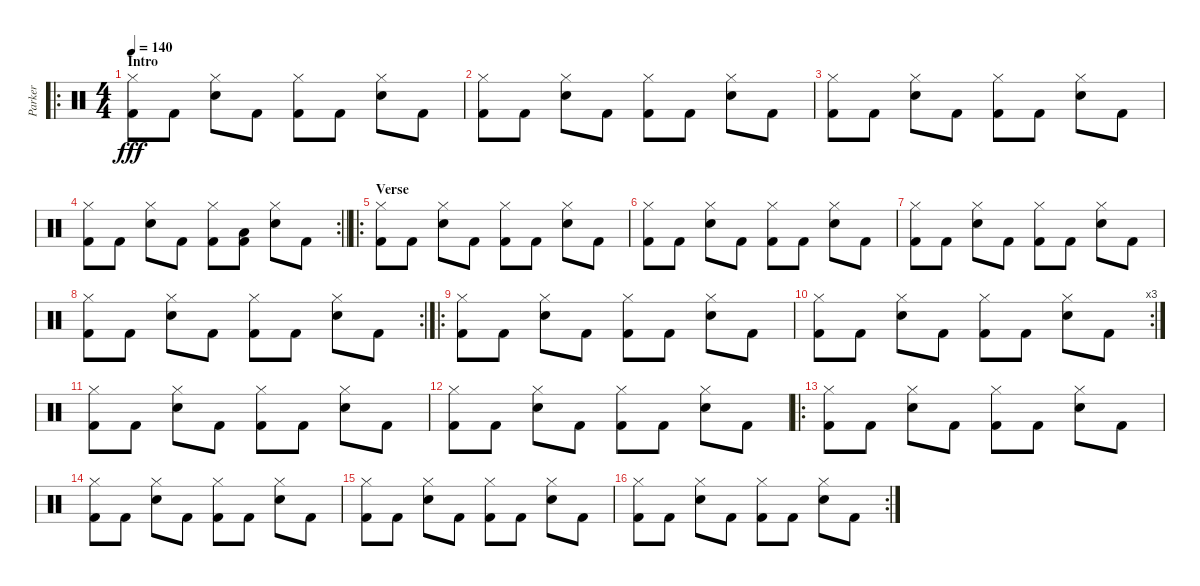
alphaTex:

\track ("Parker" "Parker") {instrument percussion}
\staff {score}
\articulation defaults
\ro
\ts (4 4)
\section ("" "Intro")
\tempo 140
\clef neutral
\ks c
("Kick (hit) 2" "Hi-Hat (closed)").8{dy fff} "Kick (hit) 2".8 ("Hi-Hat (closed)" "Snare (hit) 2").8 "Kick (hit) 2".8 ("Kick (hit) 2" "Hi-Hat (closed)").8 "Kick (hit) 2".8 ("Hi-Hat (closed)" "Snare (hit) 2").8 "Kick (hit) 2".8 |
("Kick (hit) 2" "Hi-Hat (closed)").8 "Kick (hit) 2".8 ("Hi-Hat (closed)" "Snare (hit) 2").8 "Kick (hit) 2".8 ("Kick (hit) 2" "Hi-Hat (closed)").8 "Kick (hit) 2".8 ("Hi-Hat (closed)" "Snare (hit) 2").8 "Kick (hit) 2".8 |
("Kick (hit) 2" "Hi-Hat (closed)").8 "Kick (hit) 2".8 ("Hi-Hat (closed)" "Snare (hit) 2").8 "Kick (hit) 2".8 ("Kick (hit) 2" "Hi-Hat (closed)").8 "Kick (hit) 2".8 ("Hi-Hat (closed)" "Snare (hit) 2").8 "Kick (hit) 2".8 |
\rc 2
\barLineRight lightlight
("Kick (hit) 2" "Hi-Hat (closed)").8 "Kick (hit) 2".8 ("Hi-Hat (closed)" "Snare (hit) 2").8 "Kick (hit) 2".8 ("Kick (hit) 2" "Hi-Hat (closed)").8 ("Kick (hit) 2" "Low Floor Tom (hit)").8 ("Hi-Hat (closed)" "Snare (hit) 2").8 "Kick (hit) 2".8 |
\ro
\section ("" "Verse")
("Kick (hit) 2" "Hi-Hat (closed)").8 "Kick (hit) 2".8 ("Hi-Hat (closed)" "Snare (hit) 2").8 "Kick (hit) 2".8 ("Kick (hit) 2" "Hi-Hat (closed)").8 "Kick (hit) 2".8 ("Hi-Hat (closed)" "Snare (hit) 2").8 "Kick (hit) 2".8 |
("Kick (hit) 2" "Hi-Hat (closed)").8 "Kick (hit) 2".8 ("Hi-Hat (closed)" "Snare (hit) 2").8 "Kick (hit) 2".8 ("Kick (hit) 2" "Hi-Hat (closed)").8 "Kick (hit) 2".8 ("Hi-Hat (closed)" "Snare (hit) 2").8 "Kick (hit) 2".8 |
("Kick (hit) 2" "Hi-Hat (closed)").8 "Kick (hit) 2".8 ("Hi-Hat (closed)" "Snare (hit) 2").8 "Kick (hit) 2".8 ("Kick (hit) 2" "Hi-Hat (closed)").8 "Kick (hit) 2".8 ("Hi-Hat (closed)" "Snare (hit) 2").8 "Kick (hit) 2".8 |
\rc 2
("Kick (hit) 2" "Hi-Hat (closed)").8 "Kick (hit) 2".8 ("Hi-Hat (closed)" "Snare (hit) 2").8 "Kick (hit) 2".8 ("Kick (hit) 2" "Hi-Hat (closed)").8 "Kick (hit) 2".8 ("Hi-Hat (closed)" "Snare (hit) 2").8 "Kick (hit) 2".8 |
\ro
("Kick (hit) 2" "Hi-Hat (closed)").8 "Kick (hit) 2".8 ("Hi-Hat (closed)" "Snare (hit) 2").8 "Kick (hit) 2".8 ("Kick (hit) 2" "Hi-Hat (closed)").8 "Kick (hit) 2".8 ("Hi-Hat (closed)" "Snare (hit) 2").8 "Kick (hit) 2".8 |
\rc 3
("Kick (hit) 2" "Hi-Hat (closed)").8 "Kick (hit) 2".8 ("Hi-Hat (closed)" "Snare (hit) 2").8 "Kick (hit) 2".8 ("Kick (hit) 2" "Hi-Hat (closed)").8 "Kick (hit) 2".8 ("Hi-Hat (closed)" "Snare (hit) 2").8 "Kick (hit) 2".8 |
("Kick (hit) 2" "Hi-Hat (closed)").8 "Kick (hit) 2".8 ("Hi-Hat (closed)" "Snare (hit) 2").8 "Kick (hit) 2".8 ("Kick (hit) 2" "Hi-Hat (closed)").8 "Kick (hit) 2".8 ("Hi-Hat (closed)" "Snare (hit) 2").8 "Kick (hit) 2".8 |
("Kick (hit) 2" "Hi-Hat (closed)").8 "Kick (hit) 2".8 ("Hi-Hat (closed)" "Snare (hit) 2").8 "Kick (hit) 2".8 ("Kick (hit) 2" "Hi-Hat (closed)").8 "Kick (hit) 2".8 ("Hi-Hat (closed)" "Snare (hit) 2").8 "Kick (hit) 2".8 |
\ro
("Kick (hit) 2" "Hi-Hat (closed)").8 "Kick (hit) 2".8 ("Hi-Hat (closed)" "Snare (hit) 2").8 "Kick (hit) 2".8 ("Kick (hit) 2" "Hi-Hat (closed)").8 "Kick (hit) 2".8 ("Hi-Hat (closed)" "Snare (hit) 2").8 "Kick (hit) 2".8 |
("Kick (hit) 2" "Hi-Hat (closed)").8 "Kick (hit) 2".8 ("Hi-Hat (closed)" "Snare (hit) 2").8 "Kick (hit) 2".8 ("Kick (hit) 2" "Hi-Hat (closed)").8 "Kick (hit) 2".8 ("Hi-Hat (closed)" "Snare (hit) 2").8 "Kick (hit) 2".8 |
("Kick (hit) 2" "Hi-Hat (closed)").8 "Kick (hit) 2".8 ("Hi-Hat (closed)" "Snare (hit) 2").8 "Kick (hit) 2".8 ("Kick (hit) 2" "Hi-Hat (closed)").8 "Kick (hit) 2".8 ("Hi-Hat (closed)" "Snare (hit) 2").8 "Kick (hit) 2".8 |
\rc 2
("Kick (hit) 2" "Hi-Hat (closed)").8 "Kick (hit) 2".8 ("Hi-Hat (closed)" "Snare (hit) 2").8 "Kick (hit) 2".8 ("Kick (hit) 2" "Hi-Hat (closed)").8 "Kick (hit) 2".8 ("Hi-Hat (closed)" "Snare (hit) 2").8 "Kick (hit) 2".8
